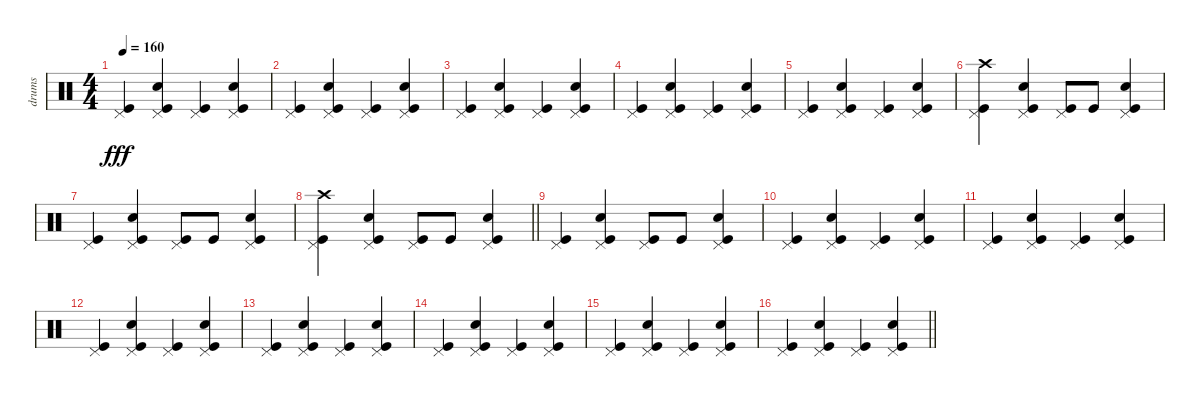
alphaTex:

\track ("drums" "drums") {instrument percussion}
\staff {score}
\articulation defaults
\ts (4 4)
\tempo 160
\clef neutral
\ks c
("Pedal Hi-Hat (hit)" "Kick (hit)").4{dy fff} ("Snare (hit) 2" "Pedal Hi-Hat (hit)" "Kick (hit)").4 ("Pedal Hi-Hat (hit)" "Kick (hit)").4 ("Snare (hit) 2" "Pedal Hi-Hat (hit)" "Kick (hit)").4 |
("Pedal Hi-Hat (hit)" "Kick (hit)").4 ("Snare (hit) 2" "Pedal Hi-Hat (hit)" "Kick (hit)").4 ("Pedal Hi-Hat (hit)" "Kick (hit)").4 ("Snare (hit) 2" "Pedal Hi-Hat (hit)" "Kick (hit)").4 |
("Pedal Hi-Hat (hit)" "Kick (hit)").4 ("Snare (hit) 2" "Pedal Hi-Hat (hit)" "Kick (hit)").4 ("Pedal Hi-Hat (hit)" "Kick (hit)").4 ("Snare (hit) 2" "Pedal Hi-Hat (hit)" "Kick (hit)").4 |
("Pedal Hi-Hat (hit)" "Kick (hit)").4 ("Snare (hit) 2" "Pedal Hi-Hat (hit)" "Kick (hit)").4 ("Pedal Hi-Hat (hit)" "Kick (hit)").4 ("Snare (hit) 2" "Pedal Hi-Hat (hit)" "Kick (hit)").4 |
("Pedal Hi-Hat (hit)" "Kick (hit)").4 ("Snare (hit) 2" "Pedal Hi-Hat (hit)" "Kick (hit)").4 ("Pedal Hi-Hat (hit)" "Kick (hit)").4 ("Snare (hit) 2" "Pedal Hi-Hat (hit)" "Kick (hit)").4 |
("Crash high (hit)" "Pedal Hi-Hat (hit)" "Kick (hit)").4 ("Snare (hit) 2" "Pedal Hi-Hat (hit)" "Kick (hit)").4 ("Pedal Hi-Hat (hit)" "Kick (hit)").8 "Kick (hit)".8 ("Snare (hit) 2" "Pedal Hi-Hat (hit)" "Kick (hit)").4 |
("Pedal Hi-Hat (hit)" "Kick (hit)").4 ("Snare (hit) 2" "Pedal Hi-Hat (hit)" "Kick (hit)").4 ("Pedal Hi-Hat (hit)" "Kick (hit)").8 "Kick (hit)".8 ("Snare (hit) 2" "Pedal Hi-Hat (hit)" "Kick (hit)").4 |
\barLineRight lightlight
("Crash high (hit)" "Pedal Hi-Hat (hit)" "Kick (hit)").4 ("Snare (hit) 2" "Pedal Hi-Hat (hit)" "Kick (hit)").4 ("Pedal Hi-Hat (hit)" "Kick (hit)").8 "Kick (hit)".8 ("Snare (hit) 2" "Pedal Hi-Hat (hit)" "Kick (hit)").4 |
("Pedal Hi-Hat (hit)" "Kick (hit)").4 ("Snare (hit) 2" "Pedal Hi-Hat (hit)" "Kick (hit)").4 ("Pedal Hi-Hat (hit)" "Kick (hit)").8 "Kick (hit)".8 ("Snare (hit) 2" "Pedal Hi-Hat (hit)" "Kick (hit)").4 |
("Pedal Hi-Hat (hit)" "Kick (hit)").4 ("Snare (hit) 2" "Pedal Hi-Hat (hit)" "Kick (hit)").4 ("Pedal Hi-Hat (hit)" "Kick (hit)").4 ("Snare (hit) 2" "Pedal Hi-Hat (hit)" "Kick (hit)").4 |
("Pedal Hi-Hat (hit)" "Kick (hit)").4 ("Snare (hit) 2" "Pedal Hi-Hat (hit)" "Kick (hit)").4 ("Pedal Hi-Hat (hit)" "Kick (hit)").4 ("Snare (hit) 2" "Pedal Hi-Hat (hit)" "Kick (hit)").4 |
("Pedal Hi-Hat (hit)" "Kick (hit)").4 ("Snare (hit) 2" "Pedal Hi-Hat (hit)" "Kick (hit)").4 ("Pedal Hi-Hat (hit)" "Kick (hit)").4 ("Snare (hit) 2" "Pedal Hi-Hat (hit)" "Kick (hit)").4 |
("Pedal Hi-Hat (hit)" "Kick (hit)").4 ("Snare (hit) 2" "Pedal Hi-Hat (hit)" "Kick (hit)").4 ("Pedal Hi-Hat (hit)" "Kick (hit)").4 ("Snare (hit) 2" "Pedal Hi-Hat (hit)" "Kick (hit)").4 |
("Pedal Hi-Hat (hit)" "Kick (hit)").4 ("Snare (hit) 2" "Pedal Hi-Hat (hit)" "Kick (hit)").4 ("Pedal Hi-Hat (hit)" "Kick (hit)").4 ("Snare (hit) 2" "Pedal Hi-Hat (hit)" "Kick (hit)").4 |
("Pedal Hi-Hat (hit)" "Kick (hit)").4 ("Snare (hit) 2" "Pedal Hi-Hat (hit)" "Kick (hit)").4 ("Pedal Hi-Hat (hit)" "Kick (hit)").4 ("Snare (hit) 2" "Pedal Hi-Hat (hit)" "Kick (hit)").4 |
\barLineRight lightlight
("Pedal Hi-Hat (hit)" "Kick (hit)").4 ("Snare (hit) 2" "Pedal Hi-Hat (hit)" "Kick (hit)").4 ("Pedal Hi-Hat (hit)" "Kick (hit)").4 ("Snare (hit) 2" "Pedal Hi-Hat (hit)" "Kick (hit)").4
